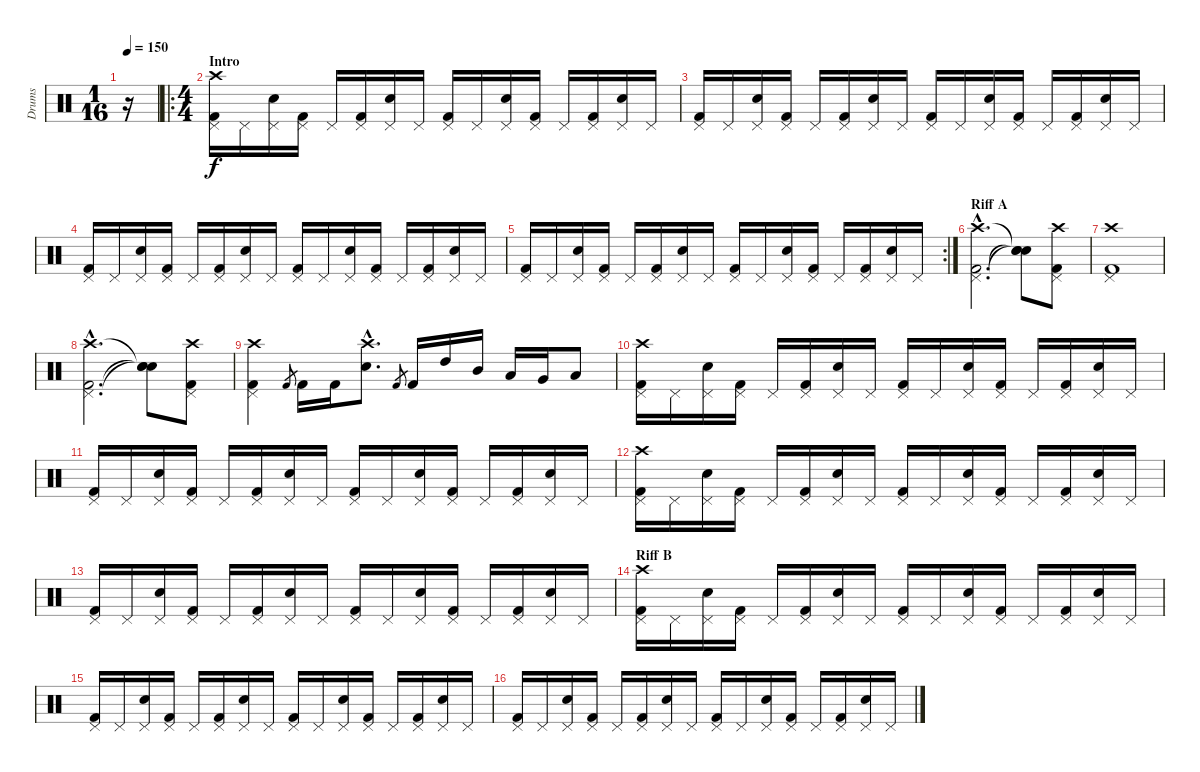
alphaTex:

\track ("Drums" "Drums") {instrument percussion}
\staff {score}
\articulation defaults
\ts (1 16)
\tempo 150
\clef neutral
\ks c
r.16{dy f} |
\ro
\ts (4 4)
\section ("" "Intro")
("Kick (hit) 2" "Pedal Hi-Hat (hit)" "Crash high (hit)").16 "Pedal Hi-Hat (hit)".16 ("Snare (hit) 2" "Pedal Hi-Hat (hit)").16 ("Kick (hit) 2" "Pedal Hi-Hat (hit)").16 "Pedal Hi-Hat (hit)".16 ("Kick (hit) 2" "Pedal Hi-Hat (hit)").16 ("Snare (hit) 2" "Pedal Hi-Hat (hit)").16 "Pedal Hi-Hat (hit)".16 ("Kick (hit) 2" "Pedal Hi-Hat (hit)").16 "Pedal Hi-Hat (hit)".16 ("Snare (hit) 2" "Pedal Hi-Hat (hit)").16 ("Kick (hit) 2" "Pedal Hi-Hat (hit)").16 "Pedal Hi-Hat (hit)".16 ("Kick (hit) 2" "Pedal Hi-Hat (hit)").16 ("Snare (hit) 2" "Pedal Hi-Hat (hit)").16 "Pedal Hi-Hat (hit)".16 |
("Kick (hit) 2" "Pedal Hi-Hat (hit)").16 "Pedal Hi-Hat (hit)".16 ("Snare (hit) 2" "Pedal Hi-Hat (hit)").16 ("Kick (hit) 2" "Pedal Hi-Hat (hit)").16 "Pedal Hi-Hat (hit)".16 ("Kick (hit) 2" "Pedal Hi-Hat (hit)").16 ("Snare (hit) 2" "Pedal Hi-Hat (hit)").16 "Pedal Hi-Hat (hit)".16 ("Kick (hit) 2" "Pedal Hi-Hat (hit)").16 "Pedal Hi-Hat (hit)".16 ("Snare (hit) 2" "Pedal Hi-Hat (hit)").16 ("Kick (hit) 2" "Pedal Hi-Hat (hit)").16 "Pedal Hi-Hat (hit)".16 ("Kick (hit) 2" "Pedal Hi-Hat (hit)").16 ("Snare (hit) 2" "Pedal Hi-Hat (hit)").16 "Pedal Hi-Hat (hit)".16 |
("Kick (hit) 2" "Pedal Hi-Hat (hit)").16 "Pedal Hi-Hat (hit)".16 ("Snare (hit) 2" "Pedal Hi-Hat (hit)").16 ("Kick (hit) 2" "Pedal Hi-Hat (hit)").16 "Pedal Hi-Hat (hit)".16 ("Kick (hit) 2" "Pedal Hi-Hat (hit)").16 ("Snare (hit) 2" "Pedal Hi-Hat (hit)").16 "Pedal Hi-Hat (hit)".16 ("Kick (hit) 2" "Pedal Hi-Hat (hit)").16 "Pedal Hi-Hat (hit)".16 ("Snare (hit) 2" "Pedal Hi-Hat (hit)").16 ("Kick (hit) 2" "Pedal Hi-Hat (hit)").16 "Pedal Hi-Hat (hit)".16 ("Kick (hit) 2" "Pedal Hi-Hat (hit)").16 ("Snare (hit) 2" "Pedal Hi-Hat (hit)").16 "Pedal Hi-Hat (hit)".16 |
\rc 2
("Kick (hit) 2" "Pedal Hi-Hat (hit)").16 "Pedal Hi-Hat (hit)".16 ("Snare (hit) 2" "Pedal Hi-Hat (hit)").16 ("Kick (hit) 2" "Pedal Hi-Hat (hit)").16 "Pedal Hi-Hat (hit)".16 ("Kick (hit) 2" "Pedal Hi-Hat (hit)").16 ("Snare (hit) 2" "Pedal Hi-Hat (hit)").16 "Pedal Hi-Hat (hit)".16 ("Kick (hit) 2" "Pedal Hi-Hat (hit)").16 "Pedal Hi-Hat (hit)".16 ("Snare (hit) 2" "Pedal Hi-Hat (hit)").16 ("Kick (hit) 2" "Pedal Hi-Hat (hit)").16 "Pedal Hi-Hat (hit)".16 ("Kick (hit) 2" "Pedal Hi-Hat (hit)").16 ("Snare (hit) 2" "Pedal Hi-Hat (hit)").16 "Pedal Hi-Hat (hit)".16 |
\section ("" "Riff A")
("Kick (hit) 2"{hac} "Pedal Hi-Hat (hit)"{hac} "Crash high (hit)"{hac}).2{d} ("Snare (hit)"{t} "Snare (hit)"{t} "Snare (hit)"{t}).8 ("Kick (hit) 2" "Pedal Hi-Hat (hit)" "Crash high (hit)").8 |
("Kick (hit) 2" "Pedal Hi-Hat (hit)" "Crash high (hit)").1 |
("Kick (hit) 2"{hac} "Pedal Hi-Hat (hit)"{hac} "Crash high (hit)"{hac}).2{d} ("Snare (hit)"{t} "Snare (hit)"{t} "Snare (hit)"{t}).8 ("Kick (hit) 2" "Pedal Hi-Hat (hit)" "Crash high (hit)").8 |
("Kick (hit) 2" "Pedal Hi-Hat (hit)" "Crash high (hit)").4 "Kick (hit) 2".8{gr} "Kick (hit) 2".16 "Kick (hit) 2".16 ("Snare (hit) 2"{hac} "Crash high (hit)"{hac}).8{d} "Kick (hit) 2".8{gr} "Kick (hit) 2".16 "High Tom (hit)".16 "Mid Tom (hit)".16 "Low Tom (hit)".16 "Very Low Tom (hit)".16 "Low Floor Tom (hit)".8 |
("Kick (hit) 2" "Pedal Hi-Hat (hit)" "Crash high (hit)").16 "Pedal Hi-Hat (hit)".16 ("Snare (hit) 2" "Pedal Hi-Hat (hit)").16 ("Kick (hit) 2" "Pedal Hi-Hat (hit)").16 "Pedal Hi-Hat (hit)".16 ("Kick (hit) 2" "Pedal Hi-Hat (hit)").16 ("Snare (hit) 2" "Pedal Hi-Hat (hit)").16 "Pedal Hi-Hat (hit)".16 ("Kick (hit) 2" "Pedal Hi-Hat (hit)").16 "Pedal Hi-Hat (hit)".16 ("Snare (hit) 2" "Pedal Hi-Hat (hit)").16 ("Kick (hit) 2" "Pedal Hi-Hat (hit)").16 "Pedal Hi-Hat (hit)".16 ("Kick (hit) 2" "Pedal Hi-Hat (hit)").16 ("Snare (hit) 2" "Pedal Hi-Hat (hit)").16 "Pedal Hi-Hat (hit)".16 |
("Kick (hit) 2" "Pedal Hi-Hat (hit)").16 "Pedal Hi-Hat (hit)".16 ("Snare (hit) 2" "Pedal Hi-Hat (hit)").16 ("Kick (hit) 2" "Pedal Hi-Hat (hit)").16 "Pedal Hi-Hat (hit)".16 ("Kick (hit) 2" "Pedal Hi-Hat (hit)").16 ("Snare (hit) 2" "Pedal Hi-Hat (hit)").16 "Pedal Hi-Hat (hit)".16 ("Kick (hit) 2" "Pedal Hi-Hat (hit)").16 "Pedal Hi-Hat (hit)".16 ("Snare (hit) 2" "Pedal Hi-Hat (hit)").16 ("Kick (hit) 2" "Pedal Hi-Hat (hit)").16 "Pedal Hi-Hat (hit)".16 ("Kick (hit) 2" "Pedal Hi-Hat (hit)").16 ("Snare (hit) 2" "Pedal Hi-Hat (hit)").16 "Pedal Hi-Hat (hit)".16 |
("Kick (hit) 2" "Pedal Hi-Hat (hit)" "Crash high (hit)").16 "Pedal Hi-Hat (hit)".16 ("Snare (hit) 2" "Pedal Hi-Hat (hit)").16 ("Kick (hit) 2" "Pedal Hi-Hat (hit)").16 "Pedal Hi-Hat (hit)".16 ("Kick (hit) 2" "Pedal Hi-Hat (hit)").16 ("Snare (hit) 2" "Pedal Hi-Hat (hit)").16 "Pedal Hi-Hat (hit)".16 ("Kick (hit) 2" "Pedal Hi-Hat (hit)").16 "Pedal Hi-Hat (hit)".16 ("Snare (hit) 2" "Pedal Hi-Hat (hit)").16 ("Kick (hit) 2" "Pedal Hi-Hat (hit)").16 "Pedal Hi-Hat (hit)".16 ("Kick (hit) 2" "Pedal Hi-Hat (hit)").16 ("Snare (hit) 2" "Pedal Hi-Hat (hit)").16 "Pedal Hi-Hat (hit)".16 |
("Kick (hit) 2" "Pedal Hi-Hat (hit)").16 "Pedal Hi-Hat (hit)".16 ("Snare (hit) 2" "Pedal Hi-Hat (hit)").16 ("Kick (hit) 2" "Pedal Hi-Hat (hit)").16 "Pedal Hi-Hat (hit)".16 ("Kick (hit) 2" "Pedal Hi-Hat (hit)").16 ("Snare (hit) 2" "Pedal Hi-Hat (hit)").16 "Pedal Hi-Hat (hit)".16 ("Kick (hit) 2" "Pedal Hi-Hat (hit)").16 "Pedal Hi-Hat (hit)".16 ("Snare (hit) 2" "Pedal Hi-Hat (hit)").16 ("Kick (hit) 2" "Pedal Hi-Hat (hit)").16 "Pedal Hi-Hat (hit)".16 ("Kick (hit) 2" "Pedal Hi-Hat (hit)").16 ("Snare (hit) 2" "Pedal Hi-Hat (hit)").16 "Pedal Hi-Hat (hit)".16 |
\section ("" "Riff B")
("Kick (hit) 2" "Pedal Hi-Hat (hit)" "Crash high (hit)").16 "Pedal Hi-Hat (hit)".16 ("Snare (hit) 2" "Pedal Hi-Hat (hit)").16 ("Kick (hit) 2" "Pedal Hi-Hat (hit)").16 "Pedal Hi-Hat (hit)".16 ("Kick (hit) 2" "Pedal Hi-Hat (hit)").16 ("Snare (hit) 2" "Pedal Hi-Hat (hit)").16 "Pedal Hi-Hat (hit)".16 ("Kick (hit) 2" "Pedal Hi-Hat (hit)").16 "Pedal Hi-Hat (hit)".16 ("Snare (hit) 2" "Pedal Hi-Hat (hit)").16 ("Kick (hit) 2" "Pedal Hi-Hat (hit)").16 "Pedal Hi-Hat (hit)".16 ("Kick (hit) 2" "Pedal Hi-Hat (hit)").16 ("Snare (hit) 2" "Pedal Hi-Hat (hit)").16 "Pedal Hi-Hat (hit)".16 |
("Kick (hit) 2" "Pedal Hi-Hat (hit)").16 "Pedal Hi-Hat (hit)".16 ("Snare (hit) 2" "Pedal Hi-Hat (hit)").16 ("Kick (hit) 2" "Pedal Hi-Hat (hit)").16 "Pedal Hi-Hat (hit)".16 ("Kick (hit) 2" "Pedal Hi-Hat (hit)").16 ("Snare (hit) 2" "Pedal Hi-Hat (hit)").16 "Pedal Hi-Hat (hit)".16 ("Kick (hit) 2" "Pedal Hi-Hat (hit)").16 "Pedal Hi-Hat (hit)".16 ("Snare (hit) 2" "Pedal Hi-Hat (hit)").16 ("Kick (hit) 2" "Pedal Hi-Hat (hit)").16 "Pedal Hi-Hat (hit)".16 ("Kick (hit) 2" "Pedal Hi-Hat (hit)").16 ("Snare (hit) 2" "Pedal Hi-Hat (hit)").16 "Pedal Hi-Hat (hit)".16 |
("Kick (hit) 2" "Pedal Hi-Hat (hit)").16 "Pedal Hi-Hat (hit)".16 ("Snare (hit) 2" "Pedal Hi-Hat (hit)").16 ("Kick (hit) 2" "Pedal Hi-Hat (hit)").16 "Pedal Hi-Hat (hit)".16 ("Kick (hit) 2" "Pedal Hi-Hat (hit)").16 ("Snare (hit) 2" "Pedal Hi-Hat (hit)").16 "Pedal Hi-Hat (hit)".16 ("Kick (hit) 2" "Pedal Hi-Hat (hit)").16 "Pedal Hi-Hat (hit)".16 ("Snare (hit) 2" "Pedal Hi-Hat (hit)").16 ("Kick (hit) 2" "Pedal Hi-Hat (hit)").16 "Pedal Hi-Hat (hit)".16 ("Kick (hit) 2" "Pedal Hi-Hat (hit)").16 ("Snare (hit) 2" "Pedal Hi-Hat (hit)").16 "Pedal Hi-Hat (hit)".16
